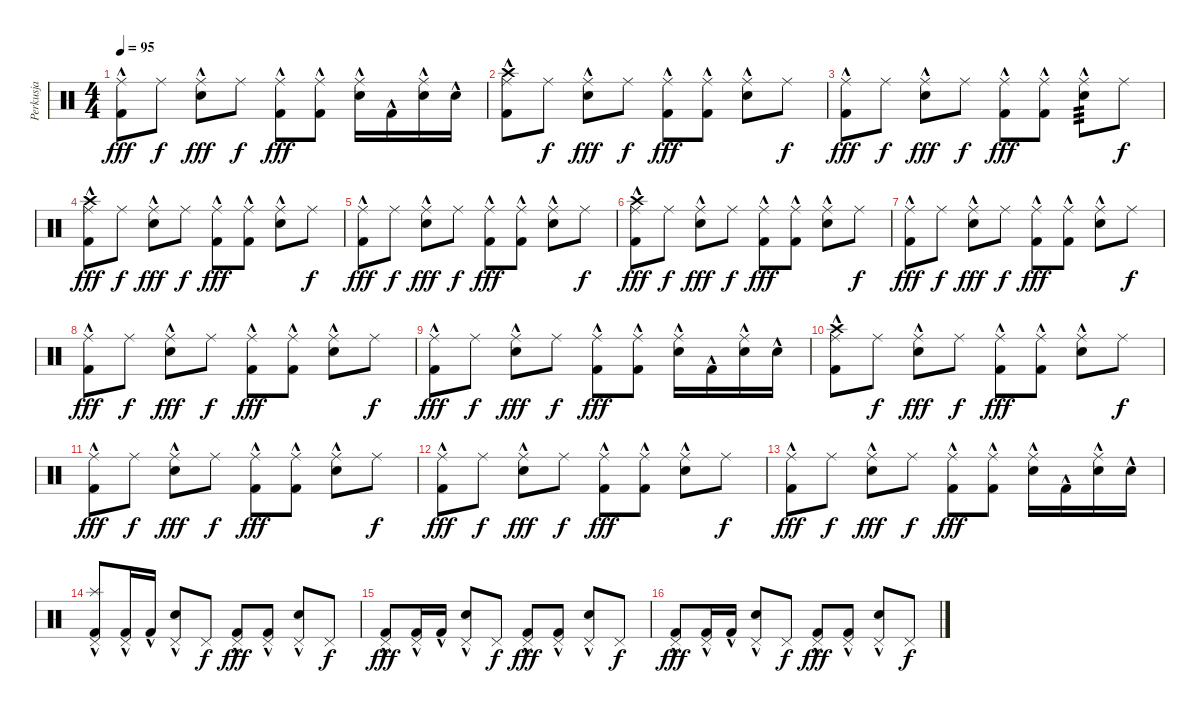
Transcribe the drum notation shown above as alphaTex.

\track ("Perkusja" "Perkusja") {instrument percussion}
\staff {score}
\articulation defaults
\ts (4 4)
\tempo 95
\clef neutral
\ks c
("Ride (middle)" "Kick (hit) 2"{hac}).8{dy fff} "Ride (middle)".8{dy f} ("Ride (middle)" "Electric Snare (hit)"{hac}).8{dy fff} "Ride (middle)".8{dy f} ("Ride (middle)" "Kick (hit) 2"{hac}).8{dy fff} ("Ride (middle)" "Kick (hit) 2"{hac}).8 ("Ride (middle)" "Electric Snare (hit)"{hac}).16 "Kick (hit) 2"{hac}.16 ("Ride (middle)" "Electric Snare (hit)"{hac}).16 "Electric Snare (hit)"{hac}.16 |
("Crash high (hit)" "Ride (middle)" "Kick (hit) 2"{hac}).8 "Ride (middle)".8{dy f} ("Ride (middle)" "Electric Snare (hit)"{hac}).8{dy fff} "Ride (middle)".8{dy f} ("Ride (middle)" "Kick (hit) 2"{hac}).8{dy fff} ("Ride (middle)" "Kick (hit) 2"{hac}).8 ("Ride (middle)" "Electric Snare (hit)"{hac}).8 "Ride (middle)".8{dy f} |
("Ride (middle)" "Kick (hit) 2"{hac}).8{dy fff} "Ride (middle)".8{dy f} ("Ride (middle)" "Electric Snare (hit)"{hac}).8{dy fff} "Ride (middle)".8{dy f} ("Ride (middle)" "Kick (hit) 2"{hac}).8{dy fff} ("Ride (middle)" "Kick (hit) 2"{hac}).8 ("Ride (middle)" "Electric Snare (hit)"{hac}).8{tp 3} "Ride (middle)".8{dy f} |
("Crash high (hit)" "Ride (middle)" "Kick (hit) 2"{hac}).8{dy fff} "Ride (middle)".8{dy f} ("Ride (middle)" "Electric Snare (hit)"{hac}).8{dy fff} "Ride (middle)".8{dy f} ("Ride (middle)" "Kick (hit) 2"{hac}).8{dy fff} ("Ride (middle)" "Kick (hit) 2"{hac}).8 ("Ride (middle)" "Electric Snare (hit)"{hac}).8 "Ride (middle)".8{dy f} |
("Ride (middle)" "Kick (hit) 2"{hac}).8{dy fff} "Ride (middle)".8{dy f} ("Ride (middle)" "Electric Snare (hit)"{hac}).8{dy fff} "Ride (middle)".8{dy f} ("Ride (middle)" "Kick (hit) 2"{hac}).8{dy fff} ("Ride (middle)" "Kick (hit) 2"{hac}).8 ("Ride (middle)" "Electric Snare (hit)"{hac}).8 "Ride (middle)".8{dy f} |
("Crash high (hit)" "Ride (middle)" "Kick (hit) 2"{hac}).8{dy fff} "Ride (middle)".8{dy f} ("Ride (middle)" "Electric Snare (hit)"{hac}).8{dy fff} "Ride (middle)".8{dy f} ("Ride (middle)" "Kick (hit) 2"{hac}).8{dy fff} ("Ride (middle)" "Kick (hit) 2"{hac}).8 ("Ride (middle)" "Electric Snare (hit)"{hac}).8 "Ride (middle)".8{dy f} |
("Ride (middle)" "Kick (hit) 2"{hac}).8{dy fff} "Ride (middle)".8{dy f} ("Ride (middle)" "Electric Snare (hit)"{hac}).8{dy fff} "Ride (middle)".8{dy f} ("Ride (middle)" "Kick (hit) 2"{hac}).8{dy fff} ("Ride (middle)" "Kick (hit) 2"{hac}).8 ("Ride (middle)" "Electric Snare (hit)"{hac}).8 "Ride (middle)".8{dy f} |
("Ride (middle)" "Kick (hit) 2"{hac}).8{dy fff} "Ride (middle)".8{dy f} ("Ride (middle)" "Electric Snare (hit)"{hac}).8{dy fff} "Ride (middle)".8{dy f} ("Ride (middle)" "Kick (hit) 2"{hac}).8{dy fff} ("Ride (middle)" "Kick (hit) 2"{hac}).8 ("Ride (middle)" "Electric Snare (hit)"{hac}).8 "Ride (middle)".8{dy f} |
("Ride (middle)" "Kick (hit) 2"{hac}).8{dy fff} "Ride (middle)".8{dy f} ("Ride (middle)" "Electric Snare (hit)"{hac}).8{dy fff} "Ride (middle)".8{dy f} ("Ride (middle)" "Kick (hit) 2"{hac}).8{dy fff} ("Ride (middle)" "Kick (hit) 2"{hac}).8 ("Ride (middle)" "Electric Snare (hit)"{hac}).16 "Kick (hit) 2"{hac}.16 ("Ride (middle)" "Electric Snare (hit)"{hac}).16 "Electric Snare (hit)"{hac}.16 |
("Crash high (hit)" "Ride (middle)" "Kick (hit) 2"{hac}).8 "Ride (middle)".8{dy f} ("Ride (middle)" "Electric Snare (hit)"{hac}).8{dy fff} "Ride (middle)".8{dy f} ("Ride (middle)" "Kick (hit) 2"{hac}).8{dy fff} ("Ride (middle)" "Kick (hit) 2"{hac}).8 ("Ride (middle)" "Electric Snare (hit)"{hac}).8 "Ride (middle)".8{dy f} |
("Ride (middle)" "Kick (hit) 2"{hac}).8{dy fff} "Ride (middle)".8{dy f} ("Ride (middle)" "Electric Snare (hit)"{hac}).8{dy fff} "Ride (middle)".8{dy f} ("Ride (middle)" "Kick (hit) 2"{hac}).8{dy fff} ("Ride (middle)" "Kick (hit) 2"{hac}).8 ("Ride (middle)" "Electric Snare (hit)"{hac}).8 "Ride (middle)".8{dy f} |
("Ride (middle)" "Kick (hit) 2"{hac}).8{dy fff} "Ride (middle)".8{dy f} ("Ride (middle)" "Electric Snare (hit)"{hac}).8{dy fff} "Ride (middle)".8{dy f} ("Ride (middle)" "Kick (hit) 2"{hac}).8{dy fff} ("Ride (middle)" "Kick (hit) 2"{hac}).8 ("Ride (middle)" "Electric Snare (hit)"{hac}).8 "Ride (middle)".8{dy f} |
("Ride (middle)" "Kick (hit) 2"{hac}).8{dy fff} "Ride (middle)".8{dy f} ("Ride (middle)" "Electric Snare (hit)"{hac}).8{dy fff} "Ride (middle)".8{dy f} ("Ride (middle)" "Kick (hit) 2"{hac}).8{dy fff} ("Ride (middle)" "Kick (hit) 2"{hac}).8 ("Ride (middle)" "Electric Snare (hit)"{hac}).16 "Kick (hit) 2"{hac}.16 ("Ride (middle)" "Electric Snare (hit)"{hac}).16 "Electric Snare (hit)"{hac}.16 |
("Splash (hit)" "Pedal Hi-Hat (hit)" "Kick (hit) 2"{hac}).8 ("Pedal Hi-Hat (hit)" "Kick (hit) 2"{hac}).16 "Kick (hit) 2"{hac}.16 ("Pedal Hi-Hat (hit)" "Electric Snare (hit)"{hac}).8 "Pedal Hi-Hat (hit)".8{dy f} ("Pedal Hi-Hat (hit)" "Kick (hit) 2"{hac}).8{dy fff} ("Pedal Hi-Hat (hit)" "Kick (hit) 2"{hac}).8 ("Pedal Hi-Hat (hit)" "Electric Snare (hit)"{hac}).8 "Pedal Hi-Hat (hit)".8{dy f} |
("Pedal Hi-Hat (hit)" "Kick (hit) 2"{hac}).8{dy fff} ("Pedal Hi-Hat (hit)" "Kick (hit) 2"{hac}).16 "Kick (hit) 2"{hac}.16 ("Pedal Hi-Hat (hit)" "Electric Snare (hit)"{hac}).8 "Pedal Hi-Hat (hit)".8{dy f} ("Pedal Hi-Hat (hit)" "Kick (hit) 2"{hac}).8{dy fff} ("Pedal Hi-Hat (hit)" "Kick (hit) 2"{hac}).8 ("Pedal Hi-Hat (hit)" "Electric Snare (hit)"{hac}).8 "Pedal Hi-Hat (hit)".8{dy f} |
("Pedal Hi-Hat (hit)" "Kick (hit) 2"{hac}).8{dy fff} ("Pedal Hi-Hat (hit)" "Kick (hit) 2"{hac}).16 "Kick (hit) 2"{hac}.16 ("Pedal Hi-Hat (hit)" "Electric Snare (hit)"{hac}).8 "Pedal Hi-Hat (hit)".8{dy f} ("Pedal Hi-Hat (hit)" "Kick (hit) 2"{hac}).8{dy fff} ("Pedal Hi-Hat (hit)" "Kick (hit) 2"{hac}).8 ("Pedal Hi-Hat (hit)" "Electric Snare (hit)"{hac}).8 "Pedal Hi-Hat (hit)".8{dy f}
